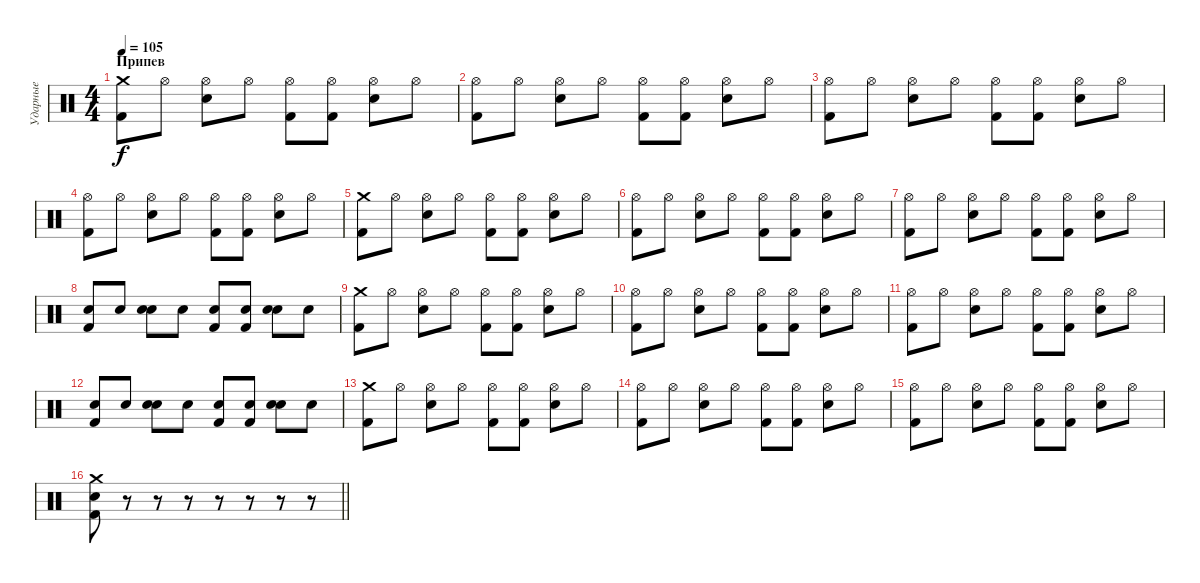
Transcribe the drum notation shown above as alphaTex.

\track ("Ударные" "Ударные") {instrument percussion}
\staff {score}
\articulation defaults
\ts (4 4)
\section ("" "Припев")
\tempo 105
\clef neutral
\ks c
("Crash medium (hit)" "Kick (hit) 2").8{dy f} "Hi-Hat (open)".8 ("Hi-Hat (open)" "Snare (hit) 2").8 "Hi-Hat (open)".8 ("Hi-Hat (open)" "Kick (hit) 2").8 ("Hi-Hat (open)" "Kick (hit) 2").8 ("Hi-Hat (open)" "Snare (hit) 2").8 "Hi-Hat (open)".8 |
("Hi-Hat (open)" "Kick (hit) 2").8 "Hi-Hat (open)".8 ("Hi-Hat (open)" "Snare (hit) 2").8 "Hi-Hat (open)".8 ("Hi-Hat (open)" "Kick (hit) 2").8 ("Hi-Hat (open)" "Kick (hit) 2").8 ("Hi-Hat (open)" "Snare (hit) 2").8 "Hi-Hat (open)".8 |
("Hi-Hat (open)" "Kick (hit) 2").8 "Hi-Hat (open)".8 ("Hi-Hat (open)" "Snare (hit) 2").8 "Hi-Hat (open)".8 ("Hi-Hat (open)" "Kick (hit) 2").8 ("Hi-Hat (open)" "Kick (hit) 2").8 ("Hi-Hat (open)" "Snare (hit) 2").8 "Hi-Hat (open)".8 |
("Hi-Hat (open)" "Kick (hit) 2").8 "Hi-Hat (open)".8 ("Hi-Hat (open)" "Snare (hit) 2").8 "Hi-Hat (open)".8 ("Hi-Hat (open)" "Kick (hit) 2").8 ("Hi-Hat (open)" "Kick (hit) 2").8 ("Hi-Hat (open)" "Snare (hit) 2").8 "Hi-Hat (open)".8 |
("Crash medium (hit)" "Kick (hit) 2").8 "Hi-Hat (open)".8 ("Hi-Hat (open)" "Snare (hit) 2").8 "Hi-Hat (open)".8 ("Hi-Hat (open)" "Kick (hit) 2").8 ("Hi-Hat (open)" "Kick (hit) 2").8 ("Hi-Hat (open)" "Snare (hit) 2").8 "Hi-Hat (open)".8 |
("Hi-Hat (open)" "Kick (hit) 2").8 "Hi-Hat (open)".8 ("Hi-Hat (open)" "Snare (hit) 2").8 "Hi-Hat (open)".8 ("Hi-Hat (open)" "Kick (hit) 2").8 ("Hi-Hat (open)" "Kick (hit) 2").8 ("Hi-Hat (open)" "Snare (hit) 2").8 "Hi-Hat (open)".8 |
("Hi-Hat (open)" "Kick (hit) 2").8 "Hi-Hat (open)".8 ("Hi-Hat (open)" "Snare (hit) 2").8 "Hi-Hat (open)".8 ("Hi-Hat (open)" "Kick (hit) 2").8 ("Hi-Hat (open)" "Kick (hit) 2").8 ("Hi-Hat (open)" "Snare (hit) 2").8 "Hi-Hat (open)".8 |
("Snare (hit) 2" "Kick (hit) 2").8 "Snare (hit) 2".8 ("Snare (hit) 2" "Snare (hit) 2").8 "Snare (hit) 2".8 ("Snare (hit) 2" "Kick (hit) 2").8 ("Snare (hit) 2" "Kick (hit) 2").8 ("Snare (hit) 2" "Snare (hit) 2").8 "Snare (hit) 2".8 |
("Crash medium (hit)" "Kick (hit) 2").8 "Hi-Hat (open)".8 ("Hi-Hat (open)" "Snare (hit) 2").8 "Hi-Hat (open)".8 ("Hi-Hat (open)" "Kick (hit) 2").8 ("Hi-Hat (open)" "Kick (hit) 2").8 ("Hi-Hat (open)" "Snare (hit) 2").8 "Hi-Hat (open)".8 |
("Hi-Hat (open)" "Kick (hit) 2").8 "Hi-Hat (open)".8 ("Hi-Hat (open)" "Snare (hit) 2").8 "Hi-Hat (open)".8 ("Hi-Hat (open)" "Kick (hit) 2").8 ("Hi-Hat (open)" "Kick (hit) 2").8 ("Hi-Hat (open)" "Snare (hit) 2").8 "Hi-Hat (open)".8 |
("Hi-Hat (open)" "Kick (hit) 2").8 "Hi-Hat (open)".8 ("Hi-Hat (open)" "Snare (hit) 2").8 "Hi-Hat (open)".8 ("Hi-Hat (open)" "Kick (hit) 2").8 ("Hi-Hat (open)" "Kick (hit) 2").8 ("Hi-Hat (open)" "Snare (hit) 2").8 "Hi-Hat (open)".8 |
("Snare (hit) 2" "Kick (hit) 2").8 "Snare (hit) 2".8 ("Snare (hit) 2" "Snare (hit) 2").8 "Snare (hit) 2".8 ("Snare (hit) 2" "Kick (hit) 2").8 ("Snare (hit) 2" "Kick (hit) 2").8 ("Snare (hit) 2" "Snare (hit) 2").8 "Snare (hit) 2".8 |
("Crash medium (hit)" "Kick (hit) 2").8 "Hi-Hat (open)".8 ("Hi-Hat (open)" "Snare (hit) 2").8 "Hi-Hat (open)".8 ("Hi-Hat (open)" "Kick (hit) 2").8 ("Hi-Hat (open)" "Kick (hit) 2").8 ("Hi-Hat (open)" "Snare (hit) 2").8 "Hi-Hat (open)".8 |
("Hi-Hat (open)" "Kick (hit) 2").8 "Hi-Hat (open)".8 ("Hi-Hat (open)" "Snare (hit) 2").8 "Hi-Hat (open)".8 ("Hi-Hat (open)" "Kick (hit) 2").8 ("Hi-Hat (open)" "Kick (hit) 2").8 ("Hi-Hat (open)" "Snare (hit) 2").8 "Hi-Hat (open)".8 |
("Hi-Hat (open)" "Kick (hit) 2").8 "Hi-Hat (open)".8 ("Hi-Hat (open)" "Snare (hit) 2").8 "Hi-Hat (open)".8 ("Hi-Hat (open)" "Kick (hit) 2").8 ("Hi-Hat (open)" "Kick (hit) 2").8 ("Hi-Hat (open)" "Snare (hit) 2").8 "Hi-Hat (open)".8 |
\barLineRight lightlight
("Crash medium (hit)" "Snare (hit) 2" "Kick (hit) 2").8 r.8 r.8 r.8 r.8 r.8 r.8 r.8
